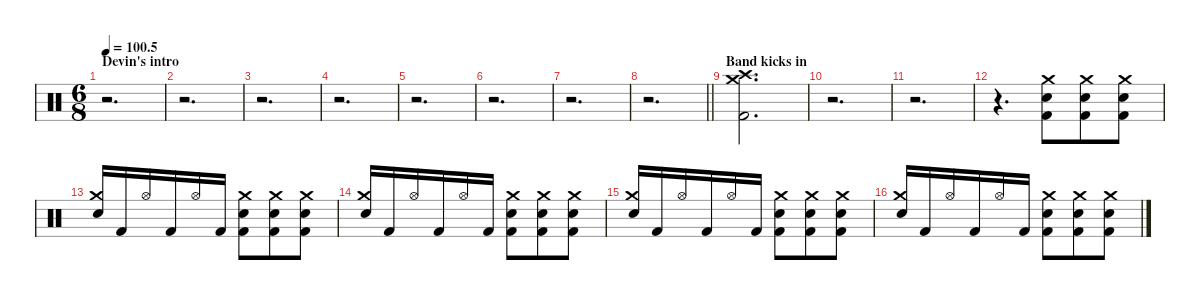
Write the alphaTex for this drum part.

\defaultSystemsLayout 4
\hideDynamics
\bracketExtendMode nobrackets
\singleTrackTrackNamePolicy hidden
\multiTrackTrackNamePolicy hidden
\firstSystemTrackNameMode fullname
\firstSystemTrackNameOrientation horizontal
\otherSystemsTrackNameOrientation horizontal
\track ("Drums" "drm.") {instrument percussion}
\staff {score}
\articulation defaults
\ts (6 8)
\beaming (8 3 3)
\section ("" "Devin's intro")
\tempo
100.5
\accidentals auto
\clef neutral
\ottava regular
\simile none
\ks c
r.2{d dy f beam Down} |
r.2{d beam Down} |
r.2{d beam Down} |
r.2{d beam Down} |
r.2{d beam Down} |
r.2{d beam Down} |
r.2{d beam Down} |
\barLineRight lightlight
r.2{d beam Down} |
\section ("" "Band kicks in")
("Crash medium (hit)" "Crash high (hit)" "Kick (hit) 2").2{d beam Down} |
r.2{d beam Down} |
r.2{d beam Down} |
r.4{d beam Down} ("Crash medium (hit)" "Snare (hit) 2" "Kick (hit) 2").8{beam Down} ("Crash medium (hit)" "Snare (hit) 2" "Kick (hit) 2").8{beam Down} ("Crash medium (hit)" "Snare (hit) 2" "Kick (hit) 2").8{beam Down} |
("Crash medium (hit)" "Snare (hit) 2").16{beam Up} "Kick (hit) 2".16{beam Up} "Hi-Hat (open)".16{beam Up} "Kick (hit) 2".16{beam Up} "Hi-Hat (open)".16{beam Up} "Kick (hit) 2".16{beam Up} ("Crash medium (hit)" "Snare (hit) 2" "Kick (hit) 2").8{beam Down} ("Crash medium (hit)" "Snare (hit) 2" "Kick (hit) 2").8{beam Down} ("Crash medium (hit)" "Snare (hit) 2" "Kick (hit) 2").8{beam Down} |
("Crash medium (hit)" "Snare (hit) 2").16{beam Up} "Kick (hit) 2".16{beam Up} "Hi-Hat (open)".16{beam Up} "Kick (hit) 2".16{beam Up} "Hi-Hat (open)".16{beam Up} "Kick (hit) 2".16{beam Up} ("Crash medium (hit)" "Snare (hit) 2" "Kick (hit) 2").8{beam Down} ("Crash medium (hit)" "Snare (hit) 2" "Kick (hit) 2").8{beam Down} ("Crash medium (hit)" "Snare (hit) 2" "Kick (hit) 2").8{beam Down} |
("Crash medium (hit)" "Snare (hit) 2").16{beam Up} "Kick (hit) 2".16{beam Up} "Hi-Hat (open)".16{beam Up} "Kick (hit) 2".16{beam Up} "Hi-Hat (open)".16{beam Up} "Kick (hit) 2".16{beam Up} ("Crash medium (hit)" "Snare (hit) 2" "Kick (hit) 2").8{beam Down} ("Crash medium (hit)" "Snare (hit) 2" "Kick (hit) 2").8{beam Down} ("Crash medium (hit)" "Snare (hit) 2" "Kick (hit) 2").8{beam Down} |
("Crash medium (hit)" "Snare (hit) 2").16{beam Up} "Kick (hit) 2".16{beam Up} "Hi-Hat (open)".16{beam Up} "Kick (hit) 2".16{beam Up} "Hi-Hat (open)".16{beam Up} "Kick (hit) 2".16{beam Up} ("Crash medium (hit)" "Snare (hit) 2" "Kick (hit) 2").8{beam Down} ("Crash medium (hit)" "Snare (hit) 2" "Kick (hit) 2").8{beam Down} ("Crash medium (hit)" "Snare (hit) 2" "Kick (hit) 2").8{beam Down}
